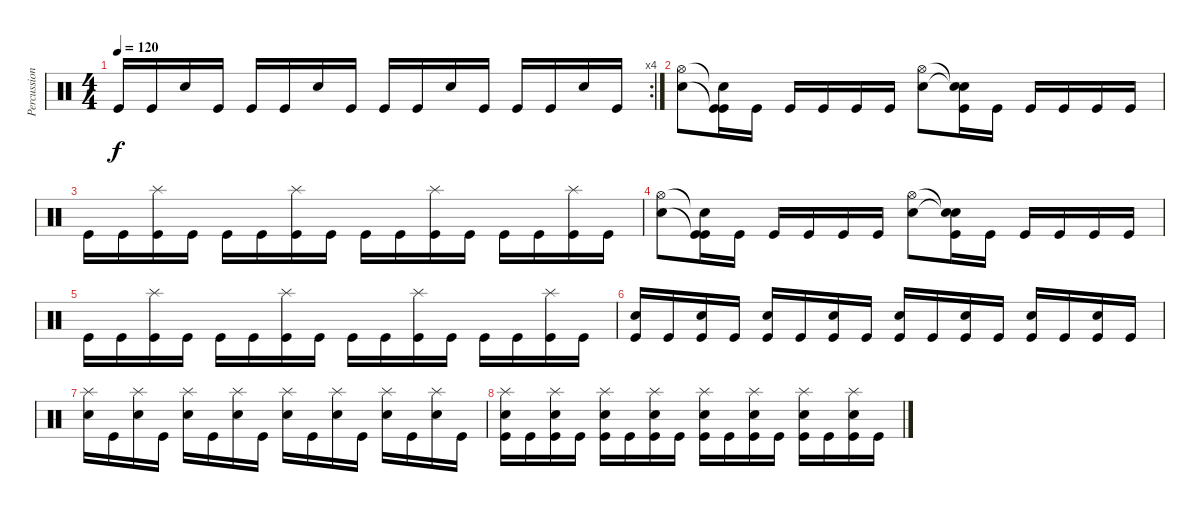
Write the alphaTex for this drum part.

\track ("Percussion" "Percussion") {instrument percussion}
\staff {score}
\articulation defaults
\rc 4
\ts (4 4)
\tempo 120
\clef neutral
\ks c "Kick (hit)".16{dy f} "Kick (hit)".16 "Electric Snare (hit)".16 "Kick (hit)".16 "Kick (hit)".16 "Kick (hit)".16 "Electric Snare (hit)".16 "Kick (hit)".16 "Kick (hit)".16 "Kick (hit)".16 "Electric Snare (hit)".16 "Kick (hit)".16 "Kick (hit)".16 "Kick (hit)".16 "Electric Snare (hit)".16 "Kick (hit)".16
|
("Hi-Hat (open)" "Electric Snare (hit)").8 ("Snare (hit)"{t} "Kick (hit)"{t} "Kick (hit)").16 "Kick (hit)".16 "Kick (hit)".16 "Kick (hit)".16 "Kick (hit)".16 "Kick (hit)".16 ("Hi-Hat (open)" "Electric Snare (hit)").8 ("Snare (hit)"{t} "Snare (hit)"{t} "Kick (hit)").16 "Kick (hit)".16 "Kick (hit)".16 "Kick (hit)".16 "Kick (hit)".16 "Kick (hit)".16 |
"Kick (hit)".16 "Kick (hit)".16 ("Splash (hit)" "Kick (hit)").16 "Kick (hit)".16 "Kick (hit)".16 "Kick (hit)".16 ("Splash (hit)" "Kick (hit)").16 "Kick (hit)".16 "Kick (hit)".16 "Kick (hit)".16 ("Splash (hit)" "Kick (hit)").16 "Kick (hit)".16 "Kick (hit)".16 "Kick (hit)".16 ("Splash (hit)" "Kick (hit)").16 "Kick (hit)".16 |
("Hi-Hat (open)" "Electric Snare (hit)").8 ("Snare (hit)"{t} "Kick (hit)"{t} "Kick (hit)").16 "Kick (hit)".16 "Kick (hit)".16 "Kick (hit)".16 "Kick (hit)".16 "Kick (hit)".16 ("Hi-Hat (open)" "Electric Snare (hit)").8 ("Snare (hit)"{t} "Snare (hit)"{t} "Kick (hit)").16 "Kick (hit)".16 "Kick (hit)".16 "Kick (hit)".16 "Kick (hit)".16 "Kick (hit)".16 |
"Kick (hit)".16 "Kick (hit)".16 ("Splash (hit)" "Kick (hit)").16 "Kick (hit)".16 "Kick (hit)".16 "Kick (hit)".16 ("Splash (hit)" "Kick (hit)").16 "Kick (hit)".16 "Kick (hit)".16 "Kick (hit)".16 ("Splash (hit)" "Kick (hit)").16 "Kick (hit)".16 "Kick (hit)".16 "Kick (hit)".16 ("Splash (hit)" "Kick (hit)").16 "Kick (hit)".16 |
("Electric Snare (hit)" "Kick (hit)").16 "Kick (hit)".16 ("Electric Snare (hit)" "Kick (hit)").16 "Kick (hit)".16 ("Electric Snare (hit)" "Kick (hit)").16 "Kick (hit)".16 ("Electric Snare (hit)" "Kick (hit)").16 "Kick (hit)".16 ("Electric Snare (hit)" "Kick (hit)").16 "Kick (hit)".16 ("Electric Snare (hit)" "Kick (hit)").16 "Kick (hit)".16 ("Electric Snare (hit)" "Kick (hit)").16 "Kick (hit)".16 ("Electric Snare (hit)" "Kick (hit)").16 "Kick (hit)".16 |
("Splash (hit)" "Electric Snare (hit)").16 "Kick (hit)".16 ("Splash (hit)" "Electric Snare (hit)").16 "Kick (hit)".16 ("Splash (hit)" "Electric Snare (hit)").16 "Kick (hit)".16 ("Splash (hit)" "Electric Snare (hit)").16 "Kick (hit)".16 ("Splash (hit)" "Electric Snare (hit)").16 "Kick (hit)".16 ("Splash (hit)" "Electric Snare (hit)").16 "Kick (hit)".16 ("Splash (hit)" "Electric Snare (hit)").16 "Kick (hit)".16 ("Splash (hit)" "Electric Snare (hit)").16 "Kick (hit)".16 |
("Splash (hit)" "Electric Snare (hit)" "Kick (hit)").16 "Kick (hit)".16 ("Splash (hit)" "Electric Snare (hit)" "Kick (hit)").16 "Kick (hit)".16 ("Splash (hit)" "Electric Snare (hit)" "Kick (hit)").16 "Kick (hit)".16 ("Splash (hit)" "Electric Snare (hit)" "Kick (hit)").16 "Kick (hit)".16 ("Splash (hit)" "Electric Snare (hit)" "Kick (hit)").16 "Kick (hit)".16 ("Splash (hit)" "Electric Snare (hit)" "Kick (hit)").16 "Kick (hit)".16 ("Splash (hit)" "Electric Snare (hit)" "Kick (hit)").16 "Kick (hit)".16 ("Splash (hit)" "Electric Snare (hit)" "Kick (hit)").16 "Kick (hit)".16
